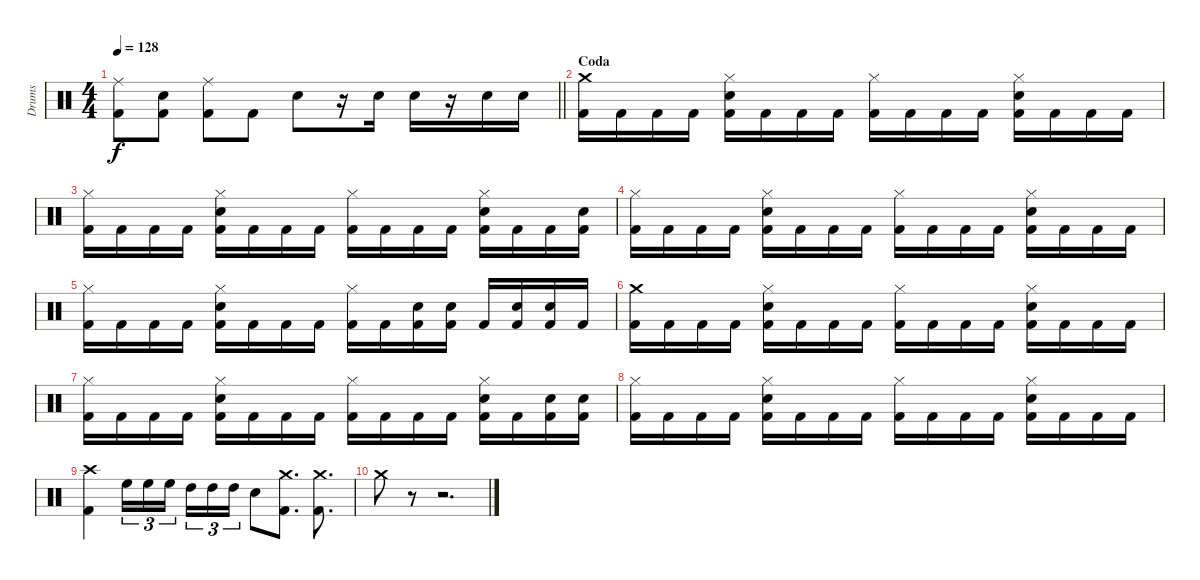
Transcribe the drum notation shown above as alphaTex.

\track ("Drums" "Drums") {instrument percussion}
\staff {score}
\articulation defaults
\ts (4 4)
\tempo 128
\clef neutral
\barLineRight lightlight
\ks c
("Ride (middle)" "Kick (hit) 2").8{dy f} ("Snare (hit) 2" "Kick (hit) 2").8 ("Ride (middle)" "Kick (hit) 2").8 "Kick (hit) 2".8 "Snare (hit) 2".8 r.16 "Snare (hit) 2".16 "Snare (hit) 2".16 r.16 "Snare (hit) 2".16 "Snare (hit) 2".16 |
\section ("" "Coda")
("Crash medium (hit)" "Kick (hit) 2").16 "Kick (hit) 2".16 "Kick (hit) 2".16 "Kick (hit) 2".16 ("Hi-Hat (closed)" "Snare (hit) 2" "Kick (hit) 2").16 "Kick (hit) 2".16 "Kick (hit) 2".16 "Kick (hit) 2".16 ("Hi-Hat (closed)" "Kick (hit) 2").16 "Kick (hit) 2".16 "Kick (hit) 2".16 "Kick (hit) 2".16 ("Hi-Hat (closed)" "Snare (hit) 2" "Kick (hit) 2").16 "Kick (hit) 2".16 "Kick (hit) 2".16 "Kick (hit) 2".16 |
("Hi-Hat (closed)" "Kick (hit) 2").16 "Kick (hit) 2".16 "Kick (hit) 2".16 "Kick (hit) 2".16 ("Hi-Hat (closed)" "Snare (hit) 2" "Kick (hit) 2").16 "Kick (hit) 2".16 "Kick (hit) 2".16 "Kick (hit) 2".16 ("Hi-Hat (closed)" "Kick (hit) 2").16 "Kick (hit) 2".16 "Kick (hit) 2".16 "Kick (hit) 2".16 ("Hi-Hat (closed)" "Snare (hit) 2" "Kick (hit) 2").16 "Kick (hit) 2".16 "Kick (hit) 2".16 ("Snare (hit) 2" "Kick (hit) 2").16 |
("Hi-Hat (closed)" "Kick (hit) 2").16 "Kick (hit) 2".16 "Kick (hit) 2".16 "Kick (hit) 2".16 ("Hi-Hat (closed)" "Snare (hit) 2" "Kick (hit) 2").16 "Kick (hit) 2".16 "Kick (hit) 2".16 "Kick (hit) 2".16 ("Hi-Hat (closed)" "Kick (hit) 2").16 "Kick (hit) 2".16 "Kick (hit) 2".16 "Kick (hit) 2".16 ("Hi-Hat (closed)" "Snare (hit) 2" "Kick (hit) 2").16 "Kick (hit) 2".16 "Kick (hit) 2".16 "Kick (hit) 2".16 |
("Hi-Hat (closed)" "Kick (hit) 2").16 "Kick (hit) 2".16 "Kick (hit) 2".16 "Kick (hit) 2".16 ("Hi-Hat (closed)" "Snare (hit) 2" "Kick (hit) 2").16 "Kick (hit) 2".16 "Kick (hit) 2".16 "Kick (hit) 2".16 ("Hi-Hat (closed)" "Kick (hit) 2").16 "Kick (hit) 2".16 ("Snare (hit) 2" "Kick (hit) 2").16 ("Snare (hit) 2" "Kick (hit) 2").16 "Kick (hit) 2".16 ("Snare (hit) 2" "Kick (hit) 2").16 ("Snare (hit) 2" "Kick (hit) 2").16 "Kick (hit) 2".16 |
("Crash medium (hit)" "Kick (hit) 2").16 "Kick (hit) 2".16 "Kick (hit) 2".16 "Kick (hit) 2".16 ("Hi-Hat (closed)" "Snare (hit) 2" "Kick (hit) 2").16 "Kick (hit) 2".16 "Kick (hit) 2".16 "Kick (hit) 2".16 ("Hi-Hat (closed)" "Kick (hit) 2").16 "Kick (hit) 2".16 "Kick (hit) 2".16 "Kick (hit) 2".16 ("Hi-Hat (closed)" "Snare (hit) 2" "Kick (hit) 2").16 "Kick (hit) 2".16 "Kick (hit) 2".16 "Kick (hit) 2".16 |
("Hi-Hat (closed)" "Kick (hit) 2").16 "Kick (hit) 2".16 "Kick (hit) 2".16 "Kick (hit) 2".16 ("Hi-Hat (closed)" "Snare (hit) 2" "Kick (hit) 2").16 "Kick (hit) 2".16 "Kick (hit) 2".16 "Kick (hit) 2".16 ("Hi-Hat (closed)" "Kick (hit) 2").16 "Kick (hit) 2".16 "Kick (hit) 2".16 "Kick (hit) 2".16 ("Hi-Hat (closed)" "Snare (hit) 2" "Kick (hit) 2").16 "Kick (hit) 2".16 ("Snare (hit) 2" "Kick (hit) 2").16 ("Snare (hit) 2" "Kick (hit) 2").16 |
("Hi-Hat (closed)" "Kick (hit) 2").16 "Kick (hit) 2".16 "Kick (hit) 2".16 "Kick (hit) 2".16 ("Hi-Hat (closed)" "Snare (hit) 2" "Kick (hit) 2").16 "Kick (hit) 2".16 "Kick (hit) 2".16 "Kick (hit) 2".16 ("Hi-Hat (closed)" "Kick (hit) 2").16 "Kick (hit) 2".16 "Kick (hit) 2".16 "Kick (hit) 2".16 ("Hi-Hat (closed)" "Snare (hit) 2" "Kick (hit) 2").16 "Kick (hit) 2".16 "Kick (hit) 2".16 "Kick (hit) 2".16 |
("Crash high (hit)" "Kick (hit) 2").4 "High Floor Tom (hit)".16{tu (3 2)} "High Floor Tom (hit)".16{tu (3 2)} "High Floor Tom (hit)".16{tu (3 2) beam splitsecondary} "High Tom (hit)".16{tu (3 2)} "High Tom (hit)".16{tu (3 2)} "High Tom (hit)".16{tu (3 2)} "Snare (hit) 2".8 ("Crash medium (hit)" "Kick (hit) 2").8{d} ("Crash medium (hit)" "Kick (hit) 2").8{d} |
"Crash medium (hit)".8 r.8 r.2{d}
